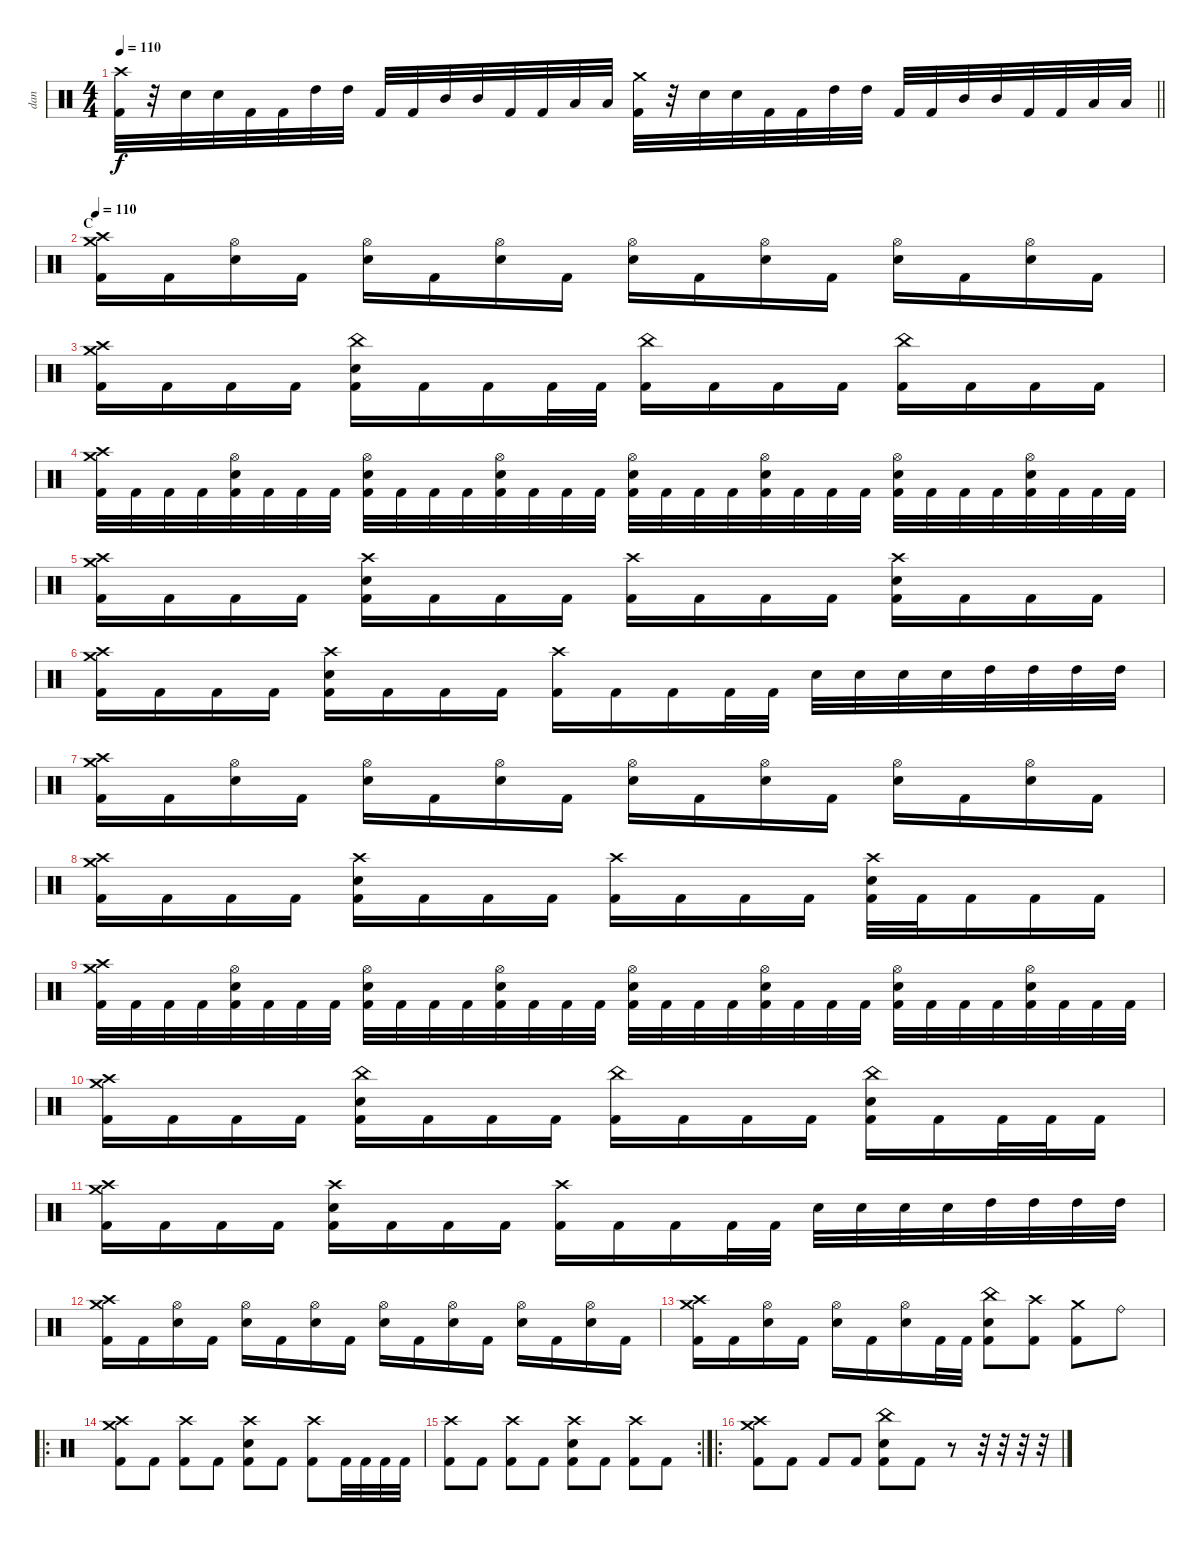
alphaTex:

\track ("dan" "dan") {instrument percussion}
\staff {score}
\articulation defaults
\ts (4 4)
\tempo 110
\clef neutral
\barLineRight lightlight
\ks c
("Crash high (hit)" "Kick (hit) 2").32{dy f} r.32 "Electric Snare (hit)".32 "Electric Snare (hit)".32 "Kick (hit) 2".32 "Kick (hit) 2".32 "High Tom (hit)".32 "High Tom (hit)".32 "Kick (hit) 2".32 "Kick (hit) 2".32 "Mid Tom (hit)".32 "Mid Tom (hit)".32 "Kick (hit) 2".32 "Kick (hit) 2".32 "Low Floor Tom (hit)".32 "Low Floor Tom (hit)".32 ("Crash medium (hit)" "Kick (hit) 2").32 r.32 "Electric Snare (hit)".32 "Electric Snare (hit)".32 "Kick (hit) 2".32 "Kick (hit) 2".32 "High Tom (hit)".32 "High Tom (hit)".32 "Kick (hit) 2".32 "Kick (hit) 2".32 "Mid Tom (hit)".32 "Mid Tom (hit)".32 "Kick (hit) 2".32 "Kick (hit) 2".32 "Low Floor Tom (hit)".32 "Low Floor Tom (hit)".32 |
\section ("" "C")
\tempo 110
("Crash high (hit)" "Crash medium (hit)" "Kick (hit) 2").16 "Kick (hit) 2".16 ("Hi-Hat (open)" "Electric Snare (hit)").16 "Kick (hit) 2".16 ("Hi-Hat (open)" "Electric Snare (hit)").16 "Kick (hit) 2".16 ("Hi-Hat (open)" "Electric Snare (hit)").16 "Kick (hit) 2".16 ("Hi-Hat (open)" "Electric Snare (hit)").16 "Kick (hit) 2".16 ("Hi-Hat (open)" "Electric Snare (hit)").16 "Kick (hit) 2".16 ("Hi-Hat (open)" "Electric Snare (hit)").16 "Kick (hit) 2".16 ("Hi-Hat (open)" "Electric Snare (hit)").16 "Kick (hit) 2".16 |
("Crash medium (hit)" "Crash high (hit)" "Kick (hit) 2").16 "Kick (hit) 2".16 "Kick (hit) 2".16 "Kick (hit) 2".16 ("China (hit)" "Electric Snare (hit)" "Kick (hit) 2").16 "Kick (hit) 2".16 "Kick (hit) 2".16 "Kick (hit) 2".32 "Kick (hit) 2".32 ("China (hit)" "Kick (hit) 2").16 "Kick (hit) 2".16 "Kick (hit) 2".16 "Kick (hit) 2".16 ("China (hit)" "Kick (hit) 2").16 "Kick (hit) 2".16 "Kick (hit) 2".16 "Kick (hit) 2".16 |
("Crash high (hit)" "Crash medium (hit)" "Kick (hit) 2").32 "Kick (hit) 2".32 "Kick (hit) 2".32 "Kick (hit) 2".32 ("Hi-Hat (open)" "Electric Snare (hit)" "Kick (hit) 2").32 "Kick (hit) 2".32 "Kick (hit) 2".32 "Kick (hit) 2".32 ("Hi-Hat (open)" "Electric Snare (hit)" "Kick (hit) 2").32 "Kick (hit) 2".32 "Kick (hit) 2".32 "Kick (hit) 2".32 ("Hi-Hat (open)" "Electric Snare (hit)" "Kick (hit) 2").32 "Kick (hit) 2".32 "Kick (hit) 2".32 "Kick (hit) 2".32 ("Hi-Hat (open)" "Electric Snare (hit)" "Kick (hit) 2").32 "Kick (hit) 2".32 "Kick (hit) 2".32 "Kick (hit) 2".32 ("Hi-Hat (open)" "Electric Snare (hit)" "Kick (hit) 2").32 "Kick (hit) 2".32 "Kick (hit) 2".32 "Kick (hit) 2".32 ("Hi-Hat (open)" "Electric Snare (hit)" "Kick (hit) 2").32 "Kick (hit) 2".32 "Kick (hit) 2".32 "Kick (hit) 2".32 ("Hi-Hat (open)" "Electric Snare (hit)" "Kick (hit) 2").32 "Kick (hit) 2".32 "Kick (hit) 2".32 "Kick (hit) 2".32 |
("Crash high (hit)" "Crash medium (hit)" "Kick (hit) 2").16 "Kick (hit) 2".16 "Kick (hit) 2".16 "Kick (hit) 2".16 ("Crash high (hit)" "Electric Snare (hit)" "Kick (hit) 2").16 "Kick (hit) 2".16 "Kick (hit) 2".16 "Kick (hit) 2".16 ("Crash high (hit)" "Kick (hit) 2").16 "Kick (hit) 2".16 "Kick (hit) 2".16 "Kick (hit) 2".16 ("Crash high (hit)" "Electric Snare (hit)" "Kick (hit) 2").16 "Kick (hit) 2".16 "Kick (hit) 2".16 "Kick (hit) 2".16 |
("Crash high (hit)" "Crash medium (hit)" "Kick (hit) 2").16 "Kick (hit) 2".16 "Kick (hit) 2".16 "Kick (hit) 2".16 ("Crash high (hit)" "Electric Snare (hit)" "Kick (hit) 2").16 "Kick (hit) 2".16 "Kick (hit) 2".16 "Kick (hit) 2".16 ("Crash high (hit)" "Kick (hit) 2").16 "Kick (hit) 2".16 "Kick (hit) 2".16 "Kick (hit) 2".32 "Kick (hit) 2".32 "Electric Snare (hit)".32 "Electric Snare (hit)".32 "Electric Snare (hit)".32 "Electric Snare (hit)".32 "High Tom (hit)".32 "High Tom (hit)".32 "High Tom (hit)".32 "High Tom (hit)".32 |
("Crash high (hit)" "Crash medium (hit)" "Kick (hit) 2").16 "Kick (hit) 2".16 ("Hi-Hat (open)" "Electric Snare (hit)").16 "Kick (hit) 2".16 ("Hi-Hat (open)" "Electric Snare (hit)").16 "Kick (hit) 2".16 ("Hi-Hat (open)" "Electric Snare (hit)").16 "Kick (hit) 2".16 ("Hi-Hat (open)" "Electric Snare (hit)").16 "Kick (hit) 2".16 ("Hi-Hat (open)" "Electric Snare (hit)").16 "Kick (hit) 2".16 ("Hi-Hat (open)" "Electric Snare (hit)").16 "Kick (hit) 2".16 ("Hi-Hat (open)" "Electric Snare (hit)").16 "Kick (hit) 2".16 |
("Crash high (hit)" "Crash medium (hit)" "Kick (hit) 2").16 "Kick (hit) 2".16 "Kick (hit) 2".16 "Kick (hit) 2".16 ("Crash high (hit)" "Electric Snare (hit)" "Kick (hit) 2").16 "Kick (hit) 2".16 "Kick (hit) 2".16 "Kick (hit) 2".16 ("Crash high (hit)" "Kick (hit) 2").16 "Kick (hit) 2".16 "Kick (hit) 2".16 "Kick (hit) 2".16 ("Crash high (hit)" "Electric Snare (hit)" "Kick (hit) 2").32 "Kick (hit) 2".32 "Kick (hit) 2".16 "Kick (hit) 2".16 "Kick (hit) 2".16 |
("Crash high (hit)" "Crash medium (hit)" "Kick (hit) 2").32 "Kick (hit) 2".32 "Kick (hit) 2".32 "Kick (hit) 2".32 ("Hi-Hat (open)" "Electric Snare (hit)" "Kick (hit) 2").32 "Kick (hit) 2".32 "Kick (hit) 2".32 "Kick (hit) 2".32 ("Hi-Hat (open)" "Electric Snare (hit)" "Kick (hit) 2").32 "Kick (hit) 2".32 "Kick (hit) 2".32 "Kick (hit) 2".32 ("Hi-Hat (open)" "Electric Snare (hit)" "Kick (hit) 2").32 "Kick (hit) 2".32 "Kick (hit) 2".32 "Kick (hit) 2".32 ("Hi-Hat (open)" "Electric Snare (hit)" "Kick (hit) 2").32 "Kick (hit) 2".32 "Kick (hit) 2".32 "Kick (hit) 2".32 ("Hi-Hat (open)" "Electric Snare (hit)" "Kick (hit) 2").32 "Kick (hit) 2".32 "Kick (hit) 2".32 "Kick (hit) 2".32 ("Hi-Hat (open)" "Electric Snare (hit)" "Kick (hit) 2").32 "Kick (hit) 2".32 "Kick (hit) 2".32 "Kick (hit) 2".32 ("Hi-Hat (open)" "Electric Snare (hit)" "Kick (hit) 2").32 "Kick (hit) 2".32 "Kick (hit) 2".32 "Kick (hit) 2".32 |
("Crash high (hit)" "Crash medium (hit)" "Kick (hit) 2").16 "Kick (hit) 2".16 "Kick (hit) 2".16 "Kick (hit) 2".16 ("China (hit)" "Electric Snare (hit)" "Kick (hit) 2").16 "Kick (hit) 2".16 "Kick (hit) 2".16 "Kick (hit) 2".16 ("China (hit)" "Kick (hit) 2").16 "Kick (hit) 2".16 "Kick (hit) 2".16 "Kick (hit) 2".16 ("China (hit)" "Electric Snare (hit)" "Kick (hit) 2").16 "Kick (hit) 2".16 "Kick (hit) 2".32 "Kick (hit) 2".32 "Kick (hit) 2".16 |
("Crash high (hit)" "Crash medium (hit)" "Kick (hit) 2").16 "Kick (hit) 2".16 "Kick (hit) 2".16 "Kick (hit) 2".16 ("Crash high (hit)" "Electric Snare (hit)" "Kick (hit) 2").16 "Kick (hit) 2".16 "Kick (hit) 2".16 "Kick (hit) 2".16 ("Crash high (hit)" "Kick (hit) 2").16 "Kick (hit) 2".16 "Kick (hit) 2".16 "Kick (hit) 2".32 "Kick (hit) 2".32 "Electric Snare (hit)".32 "Electric Snare (hit)".32 "Electric Snare (hit)".32 "Electric Snare (hit)".32 "High Tom (hit)".32 "High Tom (hit)".32 "High Tom (hit)".32 "High Tom (hit)".32 |
("Crash high (hit)" "Crash medium (hit)" "Kick (hit) 2").16 "Kick (hit) 2".16 ("Hi-Hat (open)" "Electric Snare (hit)").16 "Kick (hit) 2".16 ("Hi-Hat (open)" "Electric Snare (hit)").16 "Kick (hit) 2".16 ("Hi-Hat (open)" "Electric Snare (hit)").16 "Kick (hit) 2".16 ("Hi-Hat (open)" "Electric Snare (hit)").16 "Kick (hit) 2".16 ("Hi-Hat (open)" "Electric Snare (hit)").16 "Kick (hit) 2".16 ("Hi-Hat (open)" "Electric Snare (hit)").16 "Kick (hit) 2".16 ("Hi-Hat (open)" "Electric Snare (hit)").16 "Kick (hit) 2".16 |
("Crash high (hit)" "Crash medium (hit)" "Kick (hit) 2").16 "Kick (hit) 2".16 ("Hi-Hat (open)" "Electric Snare (hit)").16 "Kick (hit) 2".16 ("Hi-Hat (open)" "Electric Snare (hit)").16 "Kick (hit) 2".16 ("Hi-Hat (open)" "Electric Snare (hit)").16 "Kick (hit) 2".32 "Kick (hit) 2".32 ("China (hit)" "Electric Snare (hit)" "Kick (hit) 2").8 ("Crash high (hit)" "Kick (hit) 2").8 ("Crash medium (hit)" "Kick (hit) 2").8 "Ride (bell)".8 |
\ro
("Crash high (hit)" "Crash medium (hit)" "Kick (hit) 2").8 "Kick (hit) 2".8 ("Crash high (hit)" "Kick (hit) 2").8 "Kick (hit) 2".8 ("Crash high (hit)" "Electric Snare (hit)" "Kick (hit) 2").8 "Kick (hit) 2".8 ("Crash high (hit)" "Kick (hit) 2").8 "Kick (hit) 2".32 "Kick (hit) 2".32 "Kick (hit) 2".32 "Kick (hit) 2".32 |
\rc 2
("Crash high (hit)" "Kick (hit) 2").8 "Kick (hit) 2".8 ("Crash high (hit)" "Kick (hit) 2").8 "Kick (hit) 2".8 ("Crash high (hit)" "Electric Snare (hit)" "Kick (hit) 2").8 "Kick (hit) 2".8 ("Crash high (hit)" "Kick (hit) 2").8 "Kick (hit) 2".8 |
\ro
("Crash high (hit)" "Crash medium (hit)" "Kick (hit) 2").8 "Kick (hit) 2".8 "Kick (hit) 2".8 "Kick (hit) 2".8 ("China (hit)" "Electric Snare (hit)" "Kick (hit) 2").8 "Kick (hit) 2".8 r.8 r.32 r.32 r.32 r.32
